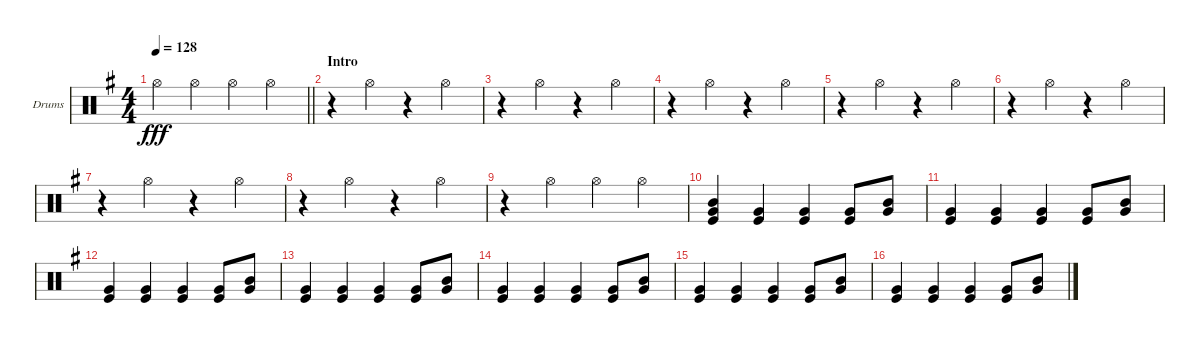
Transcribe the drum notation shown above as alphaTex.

\bracketExtendMode groupsimilarinstruments
\firstSystemTrackNameOrientation horizontal
\otherSystemsTrackNameOrientation horizontal
\track ("Барабаны" "Drums") {instrument percussion}
\staff {score}
\articulation defaults
\ts (4 4)
\beaming (8 2 2 2 2)
\tempo 128
\clef neutral
\barLineRight lightlight
\ks eminor "Hi-Hat (open)".4{dy fff} "Hi-Hat (open)".4 "Hi-Hat (open)".4 "Hi-Hat (open)".4
|
\section ("" "Intro")
r.4 "Hi-Hat (open)".4 r.4 "Hi-Hat (open)".4 |
r.4 "Hi-Hat (open)".4 r.4 "Hi-Hat (open)".4 |
r.4 "Hi-Hat (open)".4 r.4 "Hi-Hat (open)".4 |
r.4 "Hi-Hat (open)".4 r.4 "Hi-Hat (open)".4 |
r.4 "Hi-Hat (open)".4 r.4 "Hi-Hat (open)".4 |
r.4 "Hi-Hat (open)".4 r.4 "Hi-Hat (open)".4 |
r.4 "Hi-Hat (open)".4 r.4 "Hi-Hat (open)".4 |
r.4 "Hi-Hat (open)".4 "Hi-Hat (open)".4 "Hi-Hat (open)".4 |
("Very Low Tom (hit)" "Mid Tom (hit)" "Kick (hit)").4 ("Kick (hit)" "Very Low Tom (hit)").4 ("Kick (hit)" "Very Low Tom (hit)").4 ("Kick (hit)" "Very Low Tom (hit)").8 ("Mid Tom (hit)" "Very Low Tom (hit)").8 |
("Very Low Tom (hit)" "Kick (hit)").4 ("Kick (hit)" "Very Low Tom (hit)").4 ("Kick (hit)" "Very Low Tom (hit)").4 ("Kick (hit)" "Very Low Tom (hit)").8 ("Mid Tom (hit)" "Very Low Tom (hit)").8 |
("Very Low Tom (hit)" "Kick (hit)").4 ("Kick (hit)" "Very Low Tom (hit)").4 ("Kick (hit)" "Very Low Tom (hit)").4 ("Kick (hit)" "Very Low Tom (hit)").8 ("Mid Tom (hit)" "Very Low Tom (hit)").8 |
("Very Low Tom (hit)" "Kick (hit)").4 ("Kick (hit)" "Very Low Tom (hit)").4 ("Kick (hit)" "Very Low Tom (hit)").4 ("Kick (hit)" "Very Low Tom (hit)").8 ("Mid Tom (hit)" "Very Low Tom (hit)").8 |
("Very Low Tom (hit)" "Kick (hit)").4 ("Kick (hit)" "Very Low Tom (hit)").4 ("Kick (hit)" "Very Low Tom (hit)").4 ("Kick (hit)" "Very Low Tom (hit)").8 ("Mid Tom (hit)" "Very Low Tom (hit)").8 |
("Very Low Tom (hit)" "Kick (hit)").4 ("Kick (hit)" "Very Low Tom (hit)").4 ("Kick (hit)" "Very Low Tom (hit)").4 ("Kick (hit)" "Very Low Tom (hit)").8 ("Mid Tom (hit)" "Very Low Tom (hit)").8 |
("Very Low Tom (hit)" "Kick (hit)").4 ("Kick (hit)" "Very Low Tom (hit)").4 ("Kick (hit)" "Very Low Tom (hit)").4 ("Kick (hit)" "Very Low Tom (hit)").8 ("Mid Tom (hit)" "Very Low Tom (hit)").8
